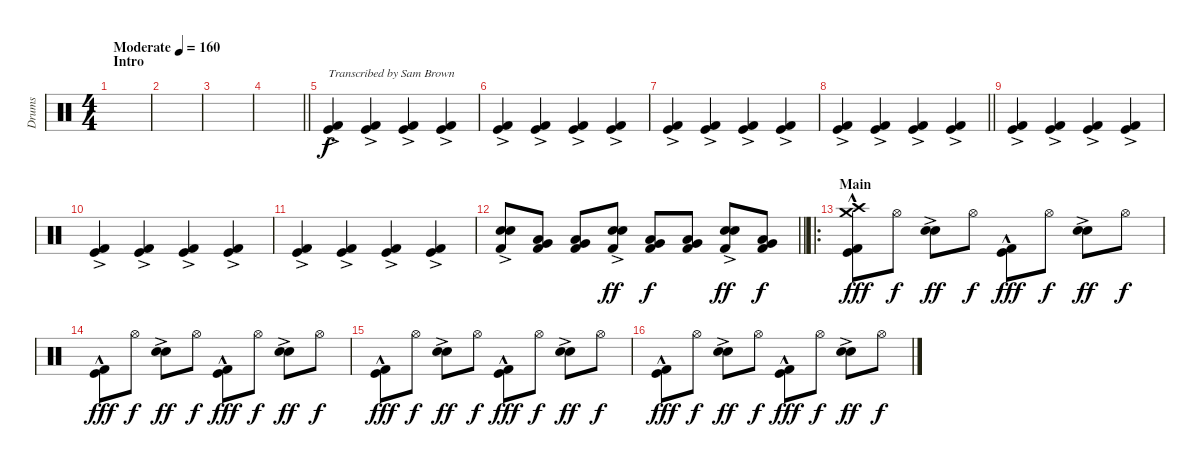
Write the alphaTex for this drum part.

\track ("Drums" "Drums") {instrument percussion}
\staff {score}
\articulation defaults
\ts (4 4)
\section ("" "Intro")
\tempo (160 "Moderate")
\clef neutral
\ks c
|
|
|
\barLineRight lightlight
|
\section ("" "")
("Kick (hit) 2"{ac} "Kick (hit)"{ac}).4{txt "Transcribed by Sam Brown"} ("Kick (hit) 2"{ac} "Kick (hit)"{ac}).4 ("Kick (hit) 2"{ac} "Kick (hit)"{ac}).4 ("Kick (hit) 2"{ac} "Kick (hit)"{ac}).4 |
("Kick (hit) 2"{ac} "Kick (hit)"{ac}).4 ("Kick (hit) 2"{ac} "Kick (hit)"{ac}).4 ("Kick (hit) 2"{ac} "Kick (hit)"{ac}).4 ("Kick (hit) 2"{ac} "Kick (hit)"{ac}).4 |
("Kick (hit) 2"{ac} "Kick (hit)"{ac}).4 ("Kick (hit) 2"{ac} "Kick (hit)"{ac}).4 ("Kick (hit) 2"{ac} "Kick (hit)"{ac}).4 ("Kick (hit) 2"{ac} "Kick (hit)"{ac}).4 |
\barLineRight lightlight
("Kick (hit) 2"{ac} "Kick (hit)"{ac}).4 ("Kick (hit) 2"{ac} "Kick (hit)"{ac}).4 ("Kick (hit) 2"{ac} "Kick (hit)"{ac}).4 ("Kick (hit) 2"{ac} "Kick (hit)"{ac}).4 |
\section ("" "")
("Kick (hit) 2"{ac} "Kick (hit)"{ac}).4 ("Kick (hit) 2"{ac} "Kick (hit)"{ac}).4 ("Kick (hit) 2"{ac} "Kick (hit)"{ac}).4 ("Kick (hit) 2"{ac} "Kick (hit)"{ac}).4 |
("Kick (hit) 2"{ac} "Kick (hit)"{ac}).4 ("Kick (hit) 2"{ac} "Kick (hit)"{ac}).4 ("Kick (hit) 2"{ac} "Kick (hit)"{ac}).4 ("Kick (hit) 2"{ac} "Kick (hit)"{ac}).4 |
("Kick (hit) 2"{ac} "Kick (hit)"{ac}).4 ("Kick (hit) 2"{ac} "Kick (hit)"{ac}).4 ("Kick (hit) 2"{ac} "Kick (hit)"{ac}).4 ("Kick (hit) 2"{ac} "Kick (hit)"{ac}).4 |
\barLineRight lightlight
("Kick (hit) 2" "Snare (hit) 2"{ac} "Electric Snare (hit)"{ac}).8 ("Kick (hit) 2" "Low Floor Tom (hit)" "Very Low Tom (hit)").8{dy f} ("Kick (hit) 2" "Low Floor Tom (hit)" "Very Low Tom (hit)").8 ("Kick (hit) 2" "Snare (hit) 2"{ac} "Electric Snare (hit)"{ac}).8{dy ff} ("Kick (hit) 2" "Low Floor Tom (hit)" "Very Low Tom (hit)").8{dy f} ("Kick (hit) 2" "Low Floor Tom (hit)" "Very Low Tom (hit)").8 ("Kick (hit) 2" "Snare (hit) 2"{ac} "Electric Snare (hit)"{ac}).8{dy ff} ("Kick (hit) 2" "Low Floor Tom (hit)" "Very Low Tom (hit)").8{dy f} |
\ro
\section ("" "Main")
("Kick (hit) 2"{hac} "Kick (hit)"{hac} "Crash medium (hit)" "Crash high (hit)").8{dy fff} "Hi-Hat (open)".8{dy f} ("Snare (hit) 2"{ac} "Electric Snare (hit)"{ac}).8{dy ff} "Hi-Hat (open)".8{dy f} ("Kick (hit) 2"{hac} "Kick (hit)"{hac}).8{dy fff} "Hi-Hat (open)".8{dy f} ("Snare (hit) 2"{ac} "Electric Snare (hit)"{ac}).8{dy ff} "Hi-Hat (open)".8{dy f} |
("Kick (hit) 2"{hac} "Kick (hit)"{hac}).8{dy fff} "Hi-Hat (open)".8{dy f} ("Snare (hit) 2"{ac} "Electric Snare (hit)"{ac}).8{dy ff} "Hi-Hat (open)".8{dy f} ("Kick (hit) 2"{hac} "Kick (hit)"{hac}).8{dy fff} "Hi-Hat (open)".8{dy f} ("Snare (hit) 2"{ac} "Electric Snare (hit)"{ac}).8{dy ff} "Hi-Hat (open)".8{dy f} |
("Kick (hit) 2"{hac} "Kick (hit)"{hac}).8{dy fff} "Hi-Hat (open)".8{dy f} ("Snare (hit) 2"{ac} "Electric Snare (hit)"{ac}).8{dy ff} "Hi-Hat (open)".8{dy f} ("Kick (hit) 2"{hac} "Kick (hit)"{hac}).8{dy fff} "Hi-Hat (open)".8{dy f} ("Snare (hit) 2"{ac} "Electric Snare (hit)"{ac}).8{dy ff} "Hi-Hat (open)".8{dy f} |
("Kick (hit) 2"{hac} "Kick (hit)"{hac}).8{dy fff} "Hi-Hat (open)".8{dy f} ("Snare (hit) 2"{ac} "Electric Snare (hit)"{ac}).8{dy ff} "Hi-Hat (open)".8{dy f} ("Kick (hit) 2"{hac} "Kick (hit)"{hac}).8{dy fff} "Hi-Hat (open)".8{dy f} ("Snare (hit) 2"{ac} "Electric Snare (hit)"{ac}).8{dy ff} "Hi-Hat (open)".8{dy f}
